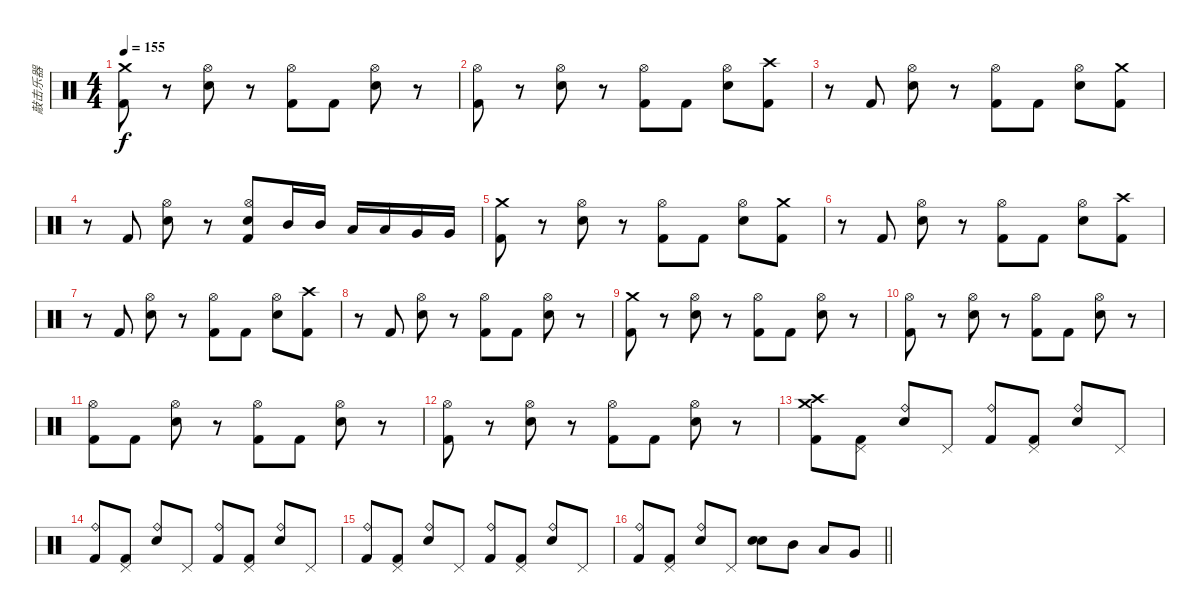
\track ("敲击乐器" "敲击乐器") {instrument percussion}
\staff {score}
\articulation defaults
\ts (4 4)
\tempo 155
\clef neutral
\ks c
("Crash medium (hit)" "Kick (hit) 2").8{dy f} r.8 ("Hi-Hat (open)" "Snare (hit) 2").8 r.8 ("Hi-Hat (open)" "Kick (hit) 2").8 "Kick (hit) 2".8 ("Hi-Hat (open)" "Snare (hit) 2").8 r.8 |
("Hi-Hat (open)" "Kick (hit) 2").8 r.8 ("Hi-Hat (open)" "Snare (hit) 2").8 r.8 ("Hi-Hat (open)" "Kick (hit) 2").8 "Kick (hit) 2".8 ("Hi-Hat (open)" "Snare (hit) 2").8 ("Crash high (hit)" "Kick (hit) 2").8 |
r.8 "Kick (hit) 2".8 ("Hi-Hat (open)" "Snare (hit) 2").8 r.8 ("Hi-Hat (open)" "Kick (hit) 2").8 "Kick (hit) 2".8 ("Hi-Hat (open)" "Snare (hit) 2").8 ("Crash medium (hit)" "Kick (hit) 2").8 |
r.8 "Kick (hit) 2".8 ("Hi-Hat (open)" "Snare (hit) 2").8 r.8 ("Hi-Hat (open)" "Snare (hit) 2" "Kick (hit) 2").8 "Mid Tom (hit)".16 "Mid Tom (hit)".16 "Low Tom (hit)".16 "Low Tom (hit)".16 "Very Low Tom (hit)".16 "Very Low Tom (hit)".16 |
("Crash medium (hit)" "Kick (hit) 2").8 r.8 ("Hi-Hat (open)" "Snare (hit) 2").8 r.8 ("Hi-Hat (open)" "Kick (hit) 2").8 "Kick (hit) 2".8 ("Hi-Hat (open)" "Snare (hit) 2").8 ("Crash medium (hit)" "Kick (hit) 2").8 |
r.8 "Kick (hit) 2".8 ("Hi-Hat (open)" "Snare (hit) 2").8 r.8 ("Hi-Hat (open)" "Kick (hit) 2").8 "Kick (hit) 2".8 ("Hi-Hat (open)" "Snare (hit) 2").8 ("Crash high (hit)" "Kick (hit) 2").8 |
r.8 "Kick (hit) 2".8 ("Hi-Hat (open)" "Snare (hit) 2").8 r.8 ("Hi-Hat (open)" "Kick (hit) 2").8 "Kick (hit) 2".8 ("Hi-Hat (open)" "Snare (hit) 2").8 ("Crash high (hit)" "Kick (hit) 2").8 |
r.8 "Kick (hit) 2".8 ("Hi-Hat (open)" "Snare (hit) 2").8 r.8 ("Hi-Hat (open)" "Kick (hit) 2").8 "Kick (hit) 2".8 ("Hi-Hat (open)" "Snare (hit) 2").8 r.8 |
("Crash medium (hit)" "Kick (hit) 2").8 r.8 ("Hi-Hat (open)" "Snare (hit) 2").8 r.8 ("Hi-Hat (open)" "Kick (hit) 2").8 "Kick (hit) 2".8 ("Hi-Hat (open)" "Snare (hit) 2").8 r.8 |
("Hi-Hat (open)" "Kick (hit) 2").8 r.8 ("Hi-Hat (open)" "Snare (hit) 2").8 r.8 ("Hi-Hat (open)" "Kick (hit) 2").8 "Kick (hit) 2".8 ("Hi-Hat (open)" "Snare (hit) 2").8 r.8 |
("Hi-Hat (open)" "Kick (hit) 2").8 "Kick (hit) 2".8 ("Hi-Hat (open)" "Snare (hit) 2").8 r.8 ("Hi-Hat (open)" "Kick (hit) 2").8 "Kick (hit) 2".8 ("Hi-Hat (open)" "Snare (hit) 2").8 r.8 |
("Hi-Hat (open)" "Kick (hit) 2").8 r.8 ("Hi-Hat (open)" "Snare (hit) 2").8 r.8 ("Hi-Hat (open)" "Kick (hit) 2").8 "Kick (hit) 2".8 ("Hi-Hat (open)" "Snare (hit) 2").8 r.8 |
("Crash high (hit)" "Crash medium (hit)" "Kick (hit) 2").8 ("Pedal Hi-Hat (hit)" "Kick (hit) 2").8 ("Ride (bell)" "Snare (hit) 2").8 "Pedal Hi-Hat (hit)".8 ("Ride (bell)" "Kick (hit) 2").8 ("Pedal Hi-Hat (hit)" "Kick (hit) 2").8 ("Ride (bell)" "Snare (hit) 2").8 "Pedal Hi-Hat (hit)".8 |
("Ride (bell)" "Kick (hit) 2").8 ("Pedal Hi-Hat (hit)" "Kick (hit) 2").8 ("Ride (bell)" "Snare (hit) 2").8 "Pedal Hi-Hat (hit)".8 ("Ride (bell)" "Kick (hit) 2").8 ("Pedal Hi-Hat (hit)" "Kick (hit) 2").8 ("Ride (bell)" "Snare (hit) 2").8 "Pedal Hi-Hat (hit)".8 |
("Ride (bell)" "Kick (hit) 2").8 ("Pedal Hi-Hat (hit)" "Kick (hit) 2").8 ("Ride (bell)" "Snare (hit) 2").8 "Pedal Hi-Hat (hit)".8 ("Ride (bell)" "Kick (hit) 2").8 ("Pedal Hi-Hat (hit)" "Kick (hit) 2").8 ("Ride (bell)" "Snare (hit) 2").8 "Pedal Hi-Hat (hit)".8 |
\barLineRight lightlight
("Ride (bell)" "Kick (hit) 2").8 ("Pedal Hi-Hat (hit)" "Kick (hit) 2").8 ("Ride (bell)" "Snare (hit) 2").8 "Pedal Hi-Hat (hit)".8 ("Snare (hit) 2" "Snare (hit) 2").8{bd 60} "Mid Tom (hit)".8 "Low Tom (hit)".8 "Very Low Tom (hit)".8
